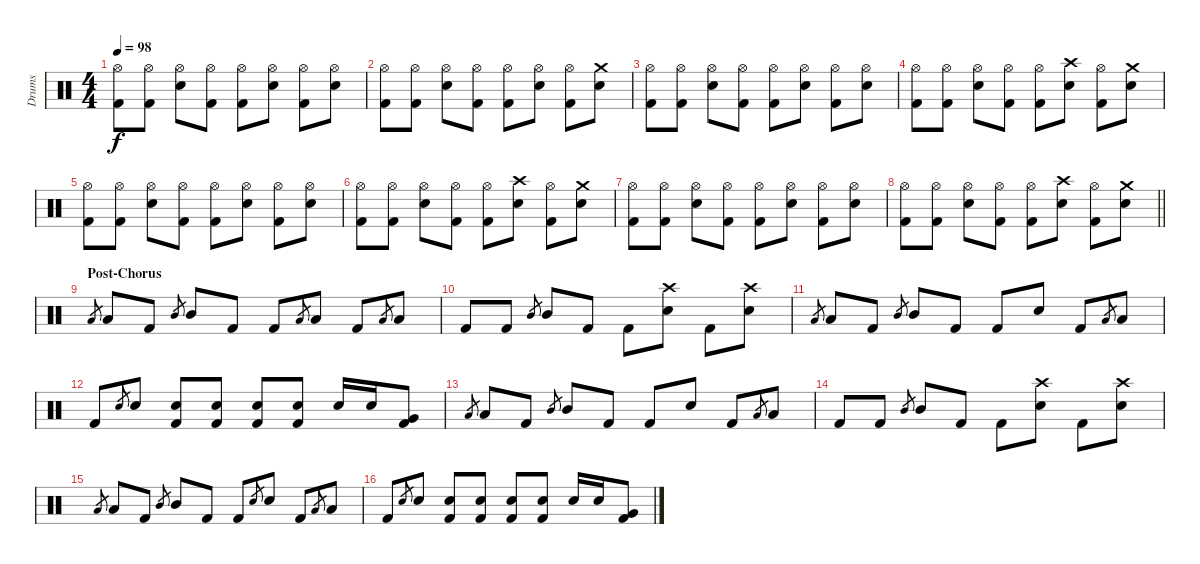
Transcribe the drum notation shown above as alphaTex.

\track ("Drums" "Drums") {instrument percussion}
\staff
\articulation defaults
\ts (4 4)
\tempo 98
\clef neutral
\ks c
("Hi-Hat (open)" "Kick (hit) 2").8{dy f} ("Hi-Hat (open)" "Kick (hit) 2").8 ("Hi-Hat (open)" "Snare (hit) 2").8 ("Hi-Hat (open)" "Kick (hit) 2").8 ("Hi-Hat (open)" "Kick (hit) 2").8 ("Hi-Hat (open)" "Snare (hit) 2").8 ("Hi-Hat (open)" "Kick (hit) 2").8 ("Hi-Hat (open)" "Snare (hit) 2").8 |
("Hi-Hat (open)" "Kick (hit) 2").8 ("Hi-Hat (open)" "Kick (hit) 2").8 ("Hi-Hat (open)" "Snare (hit) 2").8 ("Hi-Hat (open)" "Kick (hit) 2").8 ("Hi-Hat (open)" "Kick (hit) 2").8 ("Hi-Hat (open)" "Snare (hit) 2").8 ("Hi-Hat (open)" "Kick (hit) 2").8 ("Crash medium (hit)" "Snare (hit) 2").8 |
("Hi-Hat (open)" "Kick (hit) 2").8 ("Hi-Hat (open)" "Kick (hit) 2").8 ("Hi-Hat (open)" "Snare (hit) 2").8 ("Hi-Hat (open)" "Kick (hit) 2").8 ("Hi-Hat (open)" "Kick (hit) 2").8 ("Hi-Hat (open)" "Snare (hit) 2").8 ("Hi-Hat (open)" "Kick (hit) 2").8 ("Hi-Hat (open)" "Snare (hit) 2").8 |
("Hi-Hat (open)" "Kick (hit) 2").8 ("Hi-Hat (open)" "Kick (hit) 2").8 ("Hi-Hat (open)" "Snare (hit) 2").8 ("Hi-Hat (open)" "Kick (hit) 2").8 ("Hi-Hat (open)" "Kick (hit) 2").8 ("Crash high (hit)" "Snare (hit) 2").8 ("Hi-Hat (open)" "Kick (hit) 2").8 ("Crash medium (hit)" "Snare (hit) 2").8 |
("Hi-Hat (open)" "Kick (hit) 2").8 ("Hi-Hat (open)" "Kick (hit) 2").8 ("Hi-Hat (open)" "Snare (hit) 2").8 ("Hi-Hat (open)" "Kick (hit) 2").8 ("Hi-Hat (open)" "Kick (hit) 2").8 ("Hi-Hat (open)" "Snare (hit) 2").8 ("Hi-Hat (open)" "Kick (hit) 2").8 ("Hi-Hat (open)" "Snare (hit) 2").8 |
("Hi-Hat (open)" "Kick (hit) 2").8 ("Hi-Hat (open)" "Kick (hit) 2").8 ("Hi-Hat (open)" "Snare (hit) 2").8 ("Hi-Hat (open)" "Kick (hit) 2").8 ("Hi-Hat (open)" "Kick (hit) 2").8 ("Crash high (hit)" "Snare (hit) 2").8 ("Hi-Hat (open)" "Kick (hit) 2").8 ("Crash medium (hit)" "Snare (hit) 2").8 |
("Hi-Hat (open)" "Kick (hit) 2").8 ("Hi-Hat (open)" "Kick (hit) 2").8 ("Hi-Hat (open)" "Snare (hit) 2").8 ("Hi-Hat (open)" "Kick (hit) 2").8 ("Hi-Hat (open)" "Kick (hit) 2").8 ("Hi-Hat (open)" "Snare (hit) 2").8 ("Hi-Hat (open)" "Kick (hit) 2").8 ("Hi-Hat (open)" "Snare (hit) 2").8 |
\barLineRight lightlight
("Hi-Hat (open)" "Kick (hit) 2").8 ("Hi-Hat (open)" "Kick (hit) 2").8 ("Hi-Hat (open)" "Snare (hit) 2").8 ("Hi-Hat (open)" "Kick (hit) 2").8 ("Hi-Hat (open)" "Kick (hit) 2").8 ("Crash high (hit)" "Snare (hit) 2").8 ("Hi-Hat (open)" "Kick (hit) 2").8 ("Crash medium (hit)" "Snare (hit) 2").8 |
\section ("" "Post-Chorus")
"Low Tom (hit)".8{gr} "Low Tom (hit)".8 "Kick (hit) 2".8 "Mid Tom (hit)".8{gr} "Mid Tom (hit)".8 "Kick (hit) 2".8 "Kick (hit) 2".8 "Low Tom (hit)".8{gr} "Low Tom (hit)".8 "Kick (hit) 2".8 "Low Tom (hit)".8{gr} "Low Tom (hit)".8 |
"Kick (hit) 2".8 "Kick (hit) 2".8 "Mid Tom (hit)".8{gr} "Mid Tom (hit)".8 "Kick (hit) 2".8 "Kick (hit) 2".8 ("Crash high (hit)" "Snare (hit) 2").8 "Kick (hit) 2".8 ("Crash high (hit)" "Snare (hit) 2").8 |
"Low Tom (hit)".8{gr} "Low Tom (hit)".8 "Kick (hit) 2".8 "Mid Tom (hit)".8{gr} "Mid Tom (hit)".8 "Kick (hit) 2".8 "Kick (hit) 2".8 "Snare (hit) 2".8 "Kick (hit) 2".8 "Low Tom (hit)".8{gr} "Low Tom (hit)".8 |
"Kick (hit) 2".8 "Snare (hit) 2".8{gr} "Snare (hit) 2".8 ("Snare (hit) 2" "Kick (hit) 2").8 ("Snare (hit) 2" "Kick (hit) 2").8 ("Snare (hit) 2" "Kick (hit) 2").8 ("Snare (hit) 2" "Kick (hit) 2").8 "Snare (hit) 2".16 "Snare (hit) 2".16 ("Very Low Tom (hit)" "Kick (hit) 2").8 |
"Low Tom (hit)".8{gr} "Low Tom (hit)".8 "Kick (hit) 2".8 "Mid Tom (hit)".8{gr} "Mid Tom (hit)".8 "Kick (hit) 2".8 "Kick (hit) 2".8 "Snare (hit) 2".8 "Kick (hit) 2".8 "Low Tom (hit)".8{gr} "Low Tom (hit)".8 |
"Kick (hit) 2".8 "Kick (hit) 2".8 "Mid Tom (hit)".8{gr} "Mid Tom (hit)".8 "Kick (hit) 2".8 "Kick (hit) 2".8 ("Crash high (hit)" "Snare (hit) 2").8 "Kick (hit) 2".8 ("Crash high (hit)" "Snare (hit) 2").8 |
"Low Tom (hit)".8{gr} "Low Tom (hit)".8 "Kick (hit) 2".8 "Mid Tom (hit)".8{gr} "Mid Tom (hit)".8 "Kick (hit) 2".8 "Kick (hit) 2".8 "Snare (hit) 2".8{gr} "Snare (hit) 2".8 "Kick (hit) 2".8 "Low Tom (hit)".8{gr} "Low Tom (hit)".8 |
"Kick (hit) 2".8 "Snare (hit) 2".8{gr} "Snare (hit) 2".8 ("Snare (hit) 2" "Kick (hit) 2").8 ("Snare (hit) 2" "Kick (hit) 2").8 ("Snare (hit) 2" "Kick (hit) 2").8 ("Snare (hit) 2" "Kick (hit) 2").8 "Snare (hit) 2".16 "Snare (hit) 2".16 ("Very Low Tom (hit)" "Kick (hit) 2").8
